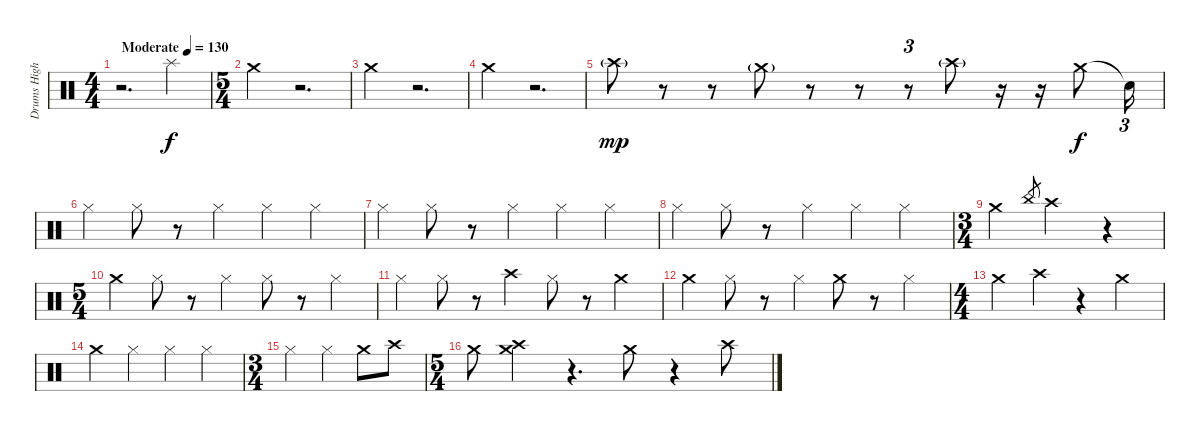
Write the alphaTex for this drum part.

\track ("Drums High" "Drums High") {instrument percussion}
\staff {score}
\articulation defaults
\ts (4 4)
\tempo (130 "Moderate")
\clef neutral
\ks c
r.2{d dy f} "Splash (hit)".4 |
\ts (5 4)
"Crash medium (hit)".2 r.2{d} |
"Crash medium (hit)".2 r.2{d} |
"Crash medium (hit)".2 r.2{d} |
"Crash high (hit)"{g}.8{dy mp} r.8 r.8 "Crash medium (hit)"{g}.8 r.8 r.8 r.8{tu (3 2)} "Crash high (hit)"{g}.8 r.16 r.16 "Crash medium (hit)".8{dy f} "Snare (hit)"{t}.16{tu (3 2)} |
"Hi-Hat (closed)".4 "Hi-Hat (closed)".8 r.8 "Hi-Hat (closed)".4 "Hi-Hat (closed)".4 "Hi-Hat (closed)".4 |
"Hi-Hat (closed)".4 "Hi-Hat (closed)".8 r.8 "Hi-Hat (closed)".4 "Hi-Hat (closed)".4 "Hi-Hat (closed)".4 |
"Hi-Hat (closed)".4 "Hi-Hat (closed)".8 r.8 "Hi-Hat (closed)".4 "Hi-Hat (closed)".4 "Hi-Hat (closed)".4 |
\ts (3 4)
"Crash medium (hit)".4 "China (hit)".8{gr} "Crash high (hit)".4 r.4 |
\ts (5 4)
"Crash medium (hit)".4 "Hi-Hat (closed)".8 r.8 "Hi-Hat (closed)".4 "Hi-Hat (closed)".8 r.8 "Hi-Hat (closed)".4 |
"Hi-Hat (closed)".4 "Hi-Hat (closed)".8 r.8 "Crash high (hit)".4 "Hi-Hat (closed)".8 r.8 "Crash medium (hit)".4 |
"Crash medium (hit)".4 "Hi-Hat (closed)".8 r.8 "Hi-Hat (closed)".4 "Crash medium (hit)".8 r.8 "Hi-Hat (closed)".4 |
\ts (4 4)
"Crash medium (hit)".4 "Crash high (hit)".4 r.4 "Crash medium (hit)".4 |
"Crash medium (hit)".4 "Hi-Hat (closed)".4 "Hi-Hat (closed)".4 "Hi-Hat (closed)".4 |
\ts (3 4)
"Hi-Hat (closed)".4 "Hi-Hat (closed)".4 "Crash medium (hit)".8 "Crash high (hit)".8 |
\ts (5 4)
"Crash medium (hit)".8 ("Crash medium (hit)" "Crash high (hit)").4 r.4{d} "Crash medium (hit)".8 r.4 "Crash high (hit)".8
